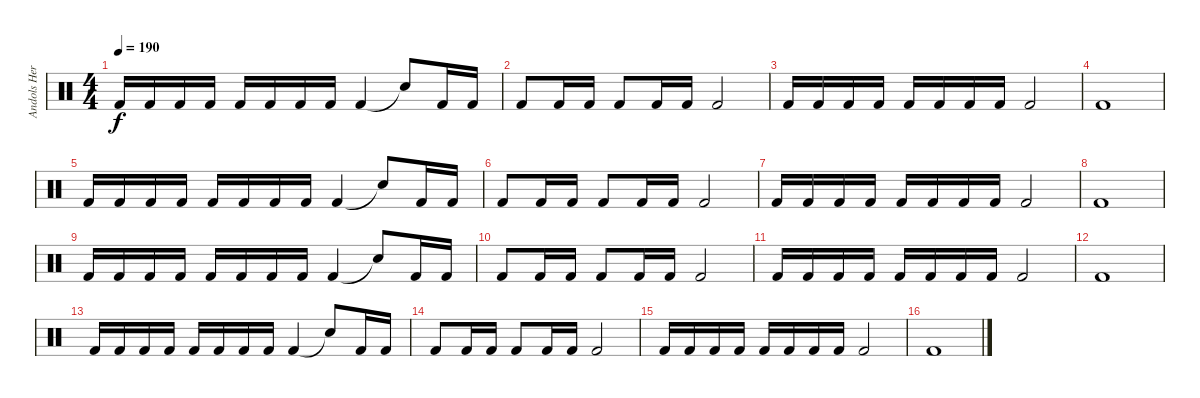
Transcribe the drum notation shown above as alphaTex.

\track ("Andols Herrick [KICK]" "Andols Her") {instrument percussion}
\staff {score}
\articulation defaults
\ts (4 4)
\tempo 190
\clef neutral
\ks c "Kick (hit) 2".16{dy f} "Kick (hit) 2".16 "Kick (hit) 2".16 "Kick (hit) 2".16 "Kick (hit) 2".16 "Kick (hit) 2".16 "Kick (hit) 2".16 "Kick (hit) 2".16 "Kick (hit) 2".4 "Snare (hit)"{t}.8 "Kick (hit) 2".16 "Kick (hit) 2".16
|
"Kick (hit) 2".8 "Kick (hit) 2".16 "Kick (hit) 2".16 "Kick (hit) 2".8 "Kick (hit) 2".16 "Kick (hit) 2".16 "Kick (hit) 2".2 |
"Kick (hit) 2".16 "Kick (hit) 2".16 "Kick (hit) 2".16 "Kick (hit) 2".16 "Kick (hit) 2".16 "Kick (hit) 2".16 "Kick (hit) 2".16 "Kick (hit) 2".16 "Kick (hit) 2".2 |
"Kick (hit) 2".1 |
"Kick (hit) 2".16 "Kick (hit) 2".16 "Kick (hit) 2".16 "Kick (hit) 2".16 "Kick (hit) 2".16 "Kick (hit) 2".16 "Kick (hit) 2".16 "Kick (hit) 2".16 "Kick (hit) 2".4 "Snare (hit)"{t}.8 "Kick (hit) 2".16 "Kick (hit) 2".16 |
"Kick (hit) 2".8 "Kick (hit) 2".16 "Kick (hit) 2".16 "Kick (hit) 2".8 "Kick (hit) 2".16 "Kick (hit) 2".16 "Kick (hit) 2".2 |
"Kick (hit) 2".16 "Kick (hit) 2".16 "Kick (hit) 2".16 "Kick (hit) 2".16 "Kick (hit) 2".16 "Kick (hit) 2".16 "Kick (hit) 2".16 "Kick (hit) 2".16 "Kick (hit) 2".2 |
"Kick (hit) 2".1 |
"Kick (hit) 2".16 "Kick (hit) 2".16 "Kick (hit) 2".16 "Kick (hit) 2".16 "Kick (hit) 2".16 "Kick (hit) 2".16 "Kick (hit) 2".16 "Kick (hit) 2".16 "Kick (hit) 2".4 "Snare (hit)"{t}.8 "Kick (hit) 2".16 "Kick (hit) 2".16 |
"Kick (hit) 2".8 "Kick (hit) 2".16 "Kick (hit) 2".16 "Kick (hit) 2".8 "Kick (hit) 2".16 "Kick (hit) 2".16 "Kick (hit) 2".2 |
"Kick (hit) 2".16 "Kick (hit) 2".16 "Kick (hit) 2".16 "Kick (hit) 2".16 "Kick (hit) 2".16 "Kick (hit) 2".16 "Kick (hit) 2".16 "Kick (hit) 2".16 "Kick (hit) 2".2 |
"Kick (hit) 2".1 |
"Kick (hit) 2".16 "Kick (hit) 2".16 "Kick (hit) 2".16 "Kick (hit) 2".16 "Kick (hit) 2".16 "Kick (hit) 2".16 "Kick (hit) 2".16 "Kick (hit) 2".16 "Kick (hit) 2".4 "Snare (hit)"{t}.8 "Kick (hit) 2".16 "Kick (hit) 2".16 |
"Kick (hit) 2".8 "Kick (hit) 2".16 "Kick (hit) 2".16 "Kick (hit) 2".8 "Kick (hit) 2".16 "Kick (hit) 2".16 "Kick (hit) 2".2 |
"Kick (hit) 2".16 "Kick (hit) 2".16 "Kick (hit) 2".16 "Kick (hit) 2".16 "Kick (hit) 2".16 "Kick (hit) 2".16 "Kick (hit) 2".16 "Kick (hit) 2".16 "Kick (hit) 2".2 |
"Kick (hit) 2".1
